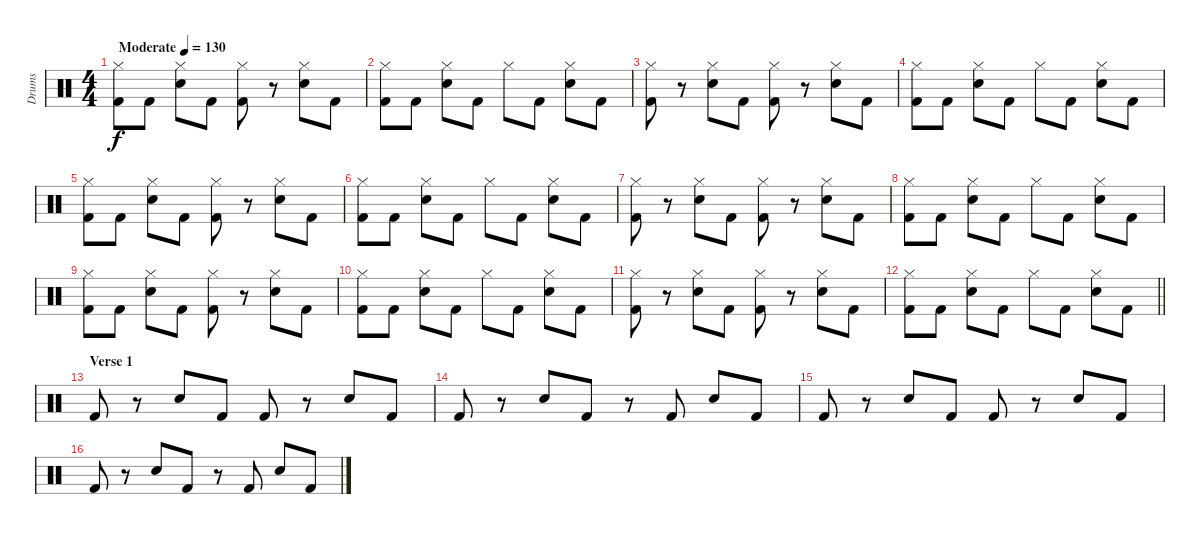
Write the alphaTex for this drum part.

\track ("Drums" "Drums") {instrument percussion}
\staff {score}
\articulation defaults
\ts (4 4)
\tempo (130 "Moderate")
\clef neutral
\ks c
("Kick (hit) 2" "Hi-Hat (closed)").8{dy f} "Kick (hit) 2".8 ("Electric Snare (hit)" "Hi-Hat (closed)").8 "Kick (hit) 2".8 ("Kick (hit) 2" "Hi-Hat (closed)").8 r.8 ("Electric Snare (hit)" "Hi-Hat (closed)").8 "Kick (hit) 2".8 |
("Kick (hit) 2" "Hi-Hat (closed)").8 "Kick (hit) 2".8 ("Electric Snare (hit)" "Hi-Hat (closed)").8 "Kick (hit) 2".8 "Hi-Hat (closed)".8 "Kick (hit) 2".8 ("Electric Snare (hit)" "Hi-Hat (closed)").8 "Kick (hit) 2".8 |
("Kick (hit) 2" "Hi-Hat (closed)").8 r.8 ("Electric Snare (hit)" "Hi-Hat (closed)").8 "Kick (hit) 2".8 ("Kick (hit) 2" "Hi-Hat (closed)").8 r.8 ("Electric Snare (hit)" "Hi-Hat (closed)").8 "Kick (hit) 2".8 |
("Kick (hit) 2" "Hi-Hat (closed)").8 "Kick (hit) 2".8 ("Electric Snare (hit)" "Hi-Hat (closed)").8 "Kick (hit) 2".8 "Hi-Hat (closed)".8 "Kick (hit) 2".8 ("Electric Snare (hit)" "Hi-Hat (closed)").8 "Kick (hit) 2".8 |
("Kick (hit) 2" "Hi-Hat (closed)").8 "Kick (hit) 2".8 ("Electric Snare (hit)" "Hi-Hat (closed)").8 "Kick (hit) 2".8 ("Kick (hit) 2" "Hi-Hat (closed)").8 r.8 ("Electric Snare (hit)" "Hi-Hat (closed)").8 "Kick (hit) 2".8 |
("Kick (hit) 2" "Hi-Hat (closed)").8 "Kick (hit) 2".8 ("Electric Snare (hit)" "Hi-Hat (closed)").8 "Kick (hit) 2".8 "Hi-Hat (closed)".8 "Kick (hit) 2".8 ("Electric Snare (hit)" "Hi-Hat (closed)").8 "Kick (hit) 2".8 |
("Kick (hit) 2" "Hi-Hat (closed)").8 r.8 ("Electric Snare (hit)" "Hi-Hat (closed)").8 "Kick (hit) 2".8 ("Kick (hit) 2" "Hi-Hat (closed)").8 r.8 ("Electric Snare (hit)" "Hi-Hat (closed)").8 "Kick (hit) 2".8 |
("Kick (hit) 2" "Hi-Hat (closed)").8 "Kick (hit) 2".8 ("Electric Snare (hit)" "Hi-Hat (closed)").8 "Kick (hit) 2".8 "Hi-Hat (closed)".8 "Kick (hit) 2".8 ("Electric Snare (hit)" "Hi-Hat (closed)").8 "Kick (hit) 2".8 |
("Kick (hit) 2" "Hi-Hat (closed)").8 "Kick (hit) 2".8 ("Electric Snare (hit)" "Hi-Hat (closed)").8 "Kick (hit) 2".8 ("Kick (hit) 2" "Hi-Hat (closed)").8 r.8 ("Electric Snare (hit)" "Hi-Hat (closed)").8 "Kick (hit) 2".8 |
("Kick (hit) 2" "Hi-Hat (closed)").8 "Kick (hit) 2".8 ("Electric Snare (hit)" "Hi-Hat (closed)").8 "Kick (hit) 2".8 "Hi-Hat (closed)".8 "Kick (hit) 2".8 ("Electric Snare (hit)" "Hi-Hat (closed)").8 "Kick (hit) 2".8 |
("Kick (hit) 2" "Hi-Hat (closed)").8 r.8 ("Electric Snare (hit)" "Hi-Hat (closed)").8 "Kick (hit) 2".8 ("Kick (hit) 2" "Hi-Hat (closed)").8 r.8 ("Electric Snare (hit)" "Hi-Hat (closed)").8 "Kick (hit) 2".8 |
\barLineRight lightlight
("Kick (hit) 2" "Hi-Hat (closed)").8 "Kick (hit) 2".8 ("Electric Snare (hit)" "Hi-Hat (closed)").8 "Kick (hit) 2".8 "Hi-Hat (closed)".8 "Kick (hit) 2".8 ("Electric Snare (hit)" "Hi-Hat (closed)").8 "Kick (hit) 2".8 |
\section ("" "Verse 1")
"Kick (hit) 2".8 r.8 "Electric Snare (hit)".8 "Kick (hit) 2".8 "Kick (hit) 2".8 r.8 "Electric Snare (hit)".8 "Kick (hit) 2".8 |
"Kick (hit) 2".8 r.8 "Electric Snare (hit)".8 "Kick (hit) 2".8 r.8 "Kick (hit) 2".8 "Electric Snare (hit)".8 "Kick (hit) 2".8 |
"Kick (hit) 2".8 r.8 "Electric Snare (hit)".8 "Kick (hit) 2".8 "Kick (hit) 2".8 r.8 "Electric Snare (hit)".8 "Kick (hit) 2".8 |
"Kick (hit) 2".8 r.8 "Electric Snare (hit)".8 "Kick (hit) 2".8 r.8 "Kick (hit) 2".8 "Electric Snare (hit)".8 "Kick (hit) 2".8
